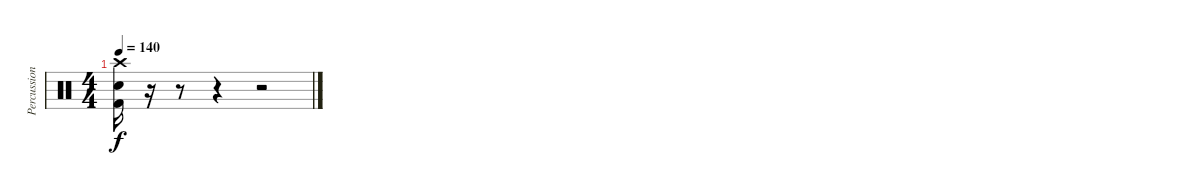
\track ("Percussion" "Percussion") {instrument percussion}
\staff {score}
\articulation defaults
\ts (4 4)
\tempo 140
\clef neutral
\ks c
("Crash high (hit)" "Snare (hit) 2" "Kick (hit) 2").16{dy f} r.16 r.8 r.4 r.2
